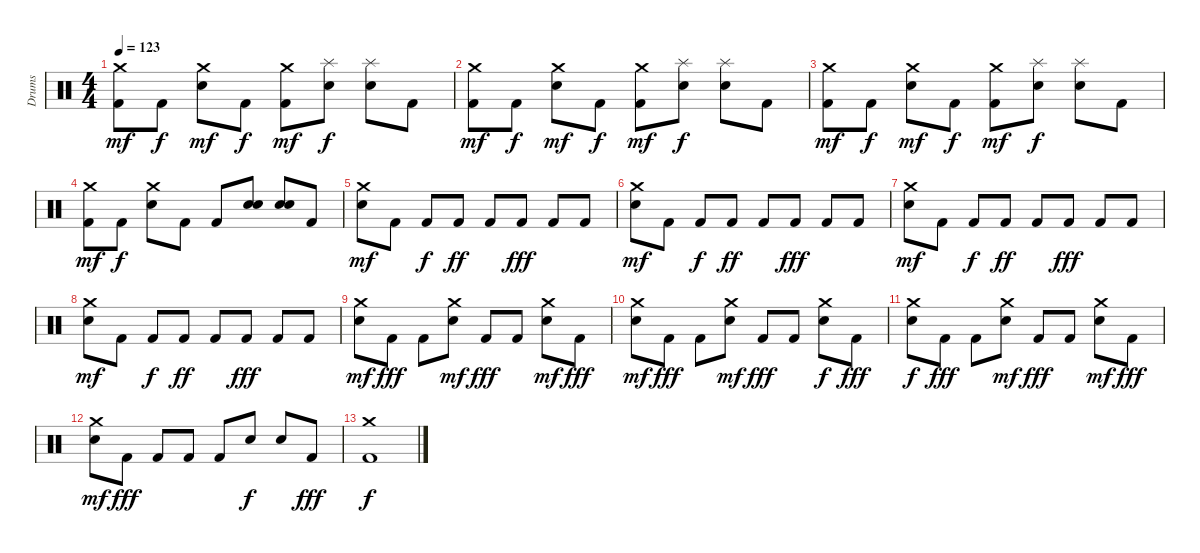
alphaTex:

\track ("Drums" "Drums") {instrument percussion}
\staff {score}
\articulation defaults
\ts (4 4)
\tempo 123
\clef neutral
\ks c
("Crash medium (hit)" "Kick (hit) 2").8{dy mf} "Kick (hit) 2".8{dy f} ("Crash medium (hit)" "Electric Snare (hit)").8{dy mf} "Kick (hit) 2".8{dy f} ("Crash medium (hit)" "Kick (hit) 2").8{dy mf} ("Splash (hit)" "Electric Snare (hit)").8{dy f} ("Splash (hit)" "Electric Snare (hit)").8 "Kick (hit) 2".8 |
("Crash medium (hit)" "Kick (hit) 2").8{dy mf} "Kick (hit) 2".8{dy f} ("Crash medium (hit)" "Electric Snare (hit)").8{dy mf} "Kick (hit) 2".8{dy f} ("Crash medium (hit)" "Kick (hit) 2").8{dy mf} ("Splash (hit)" "Electric Snare (hit)").8{dy f} ("Splash (hit)" "Electric Snare (hit)").8 "Kick (hit) 2".8 |
("Crash medium (hit)" "Kick (hit) 2").8{dy mf} "Kick (hit) 2".8{dy f} ("Crash medium (hit)" "Electric Snare (hit)").8{dy mf} "Kick (hit) 2".8{dy f} ("Crash medium (hit)" "Kick (hit) 2").8{dy mf} ("Splash (hit)" "Electric Snare (hit)").8{dy f} ("Splash (hit)" "Electric Snare (hit)").8 "Kick (hit) 2".8 |
("Crash medium (hit)" "Kick (hit) 2").8{dy mf} "Kick (hit) 2".8{dy f} ("Crash medium (hit)" "Electric Snare (hit)").8 "Kick (hit) 2".8 "Kick (hit) 2".8 ("Electric Snare (hit)" "Electric Snare (hit)").8 ("Electric Snare (hit)" "Electric Snare (hit)").8 "Kick (hit) 2".8 |
("Crash medium (hit)" "Electric Snare (hit)").8{dy mf} "Kick (hit) 2".8 "Kick (hit) 2".8{dy f} "Kick (hit) 2".8{dy ff} "Kick (hit) 2".8 "Kick (hit) 2".8{dy fff} "Kick (hit) 2".8 "Kick (hit) 2".8 |
("Crash medium (hit)" "Electric Snare (hit)").8{dy mf} "Kick (hit) 2".8 "Kick (hit) 2".8{dy f} "Kick (hit) 2".8{dy ff} "Kick (hit) 2".8 "Kick (hit) 2".8{dy fff} "Kick (hit) 2".8 "Kick (hit) 2".8 |
("Crash medium (hit)" "Electric Snare (hit)").8{dy mf} "Kick (hit) 2".8 "Kick (hit) 2".8{dy f} "Kick (hit) 2".8{dy ff} "Kick (hit) 2".8 "Kick (hit) 2".8{dy fff} "Kick (hit) 2".8 "Kick (hit) 2".8 |
("Crash medium (hit)" "Electric Snare (hit)").8{dy mf} "Kick (hit) 2".8 "Kick (hit) 2".8{dy f} "Kick (hit) 2".8{dy ff} "Kick (hit) 2".8 "Kick (hit) 2".8{dy fff} "Kick (hit) 2".8 "Kick (hit) 2".8 |
("Crash medium (hit)" "Electric Snare (hit)").8{dy mf} "Kick (hit) 2".8{dy fff} "Kick (hit) 2".8 ("Crash medium (hit)" "Electric Snare (hit)").8{dy mf} "Kick (hit) 2".8{dy fff} "Kick (hit) 2".8 ("Crash medium (hit)" "Electric Snare (hit)").8{dy mf} "Kick (hit) 2".8{dy fff} |
("Crash medium (hit)" "Electric Snare (hit)").8{dy mf} "Kick (hit) 2".8{dy fff} "Kick (hit) 2".8 ("Crash medium (hit)" "Electric Snare (hit)").8{dy mf} "Kick (hit) 2".8{dy fff} "Kick (hit) 2".8 ("Crash medium (hit)" "Electric Snare (hit)").8{dy f} "Kick (hit) 2".8{dy fff} |
("Crash medium (hit)" "Electric Snare (hit)").8{dy f} "Kick (hit) 2".8{dy fff} "Kick (hit) 2".8 ("Crash medium (hit)" "Electric Snare (hit)").8{dy mf} "Kick (hit) 2".8{dy fff} "Kick (hit) 2".8 ("Crash medium (hit)" "Electric Snare (hit)").8{dy mf} "Kick (hit) 2".8{dy fff} |
("Crash medium (hit)" "Electric Snare (hit)").8{dy mf} "Kick (hit) 2".8{dy fff} "Kick (hit) 2".8 "Kick (hit) 2".8 "Kick (hit) 2".8 "Electric Snare (hit)".8{dy f} "Electric Snare (hit)".8 "Kick (hit) 2".8{dy fff} |
("Crash medium (hit)" "Kick (hit) 2").1{dy f}
